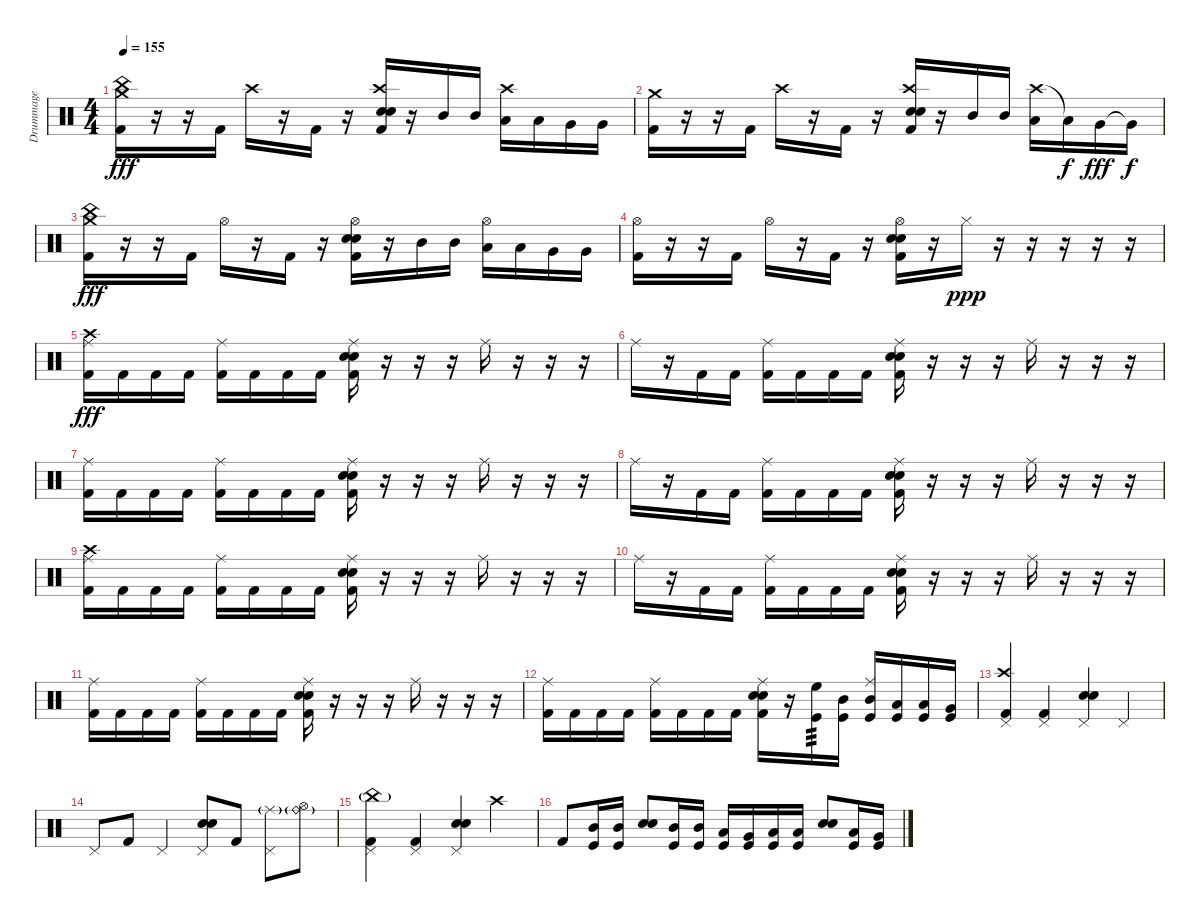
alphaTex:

\track ("Drummage" "Drummage") {instrument percussion}
\staff {score}
\articulation defaults
\ts (4 4)
\tempo 155
\clef neutral
\ks c
("China (hit)" "Crash medium (hit)" "Kick (hit) 2").16{dy fff} r.16 r.16 "Kick (hit) 2".16 "Crash high (hit)".16 r.16 "Kick (hit) 2".16 r.16 ("Crash high (hit)" "Snare (hit) 2" "Electric Snare (hit)" "Kick (hit) 2").16 r.16 "Mid Tom (hit)".16 "Mid Tom (hit)".16 ("Crash high (hit)" "Low Tom (hit)").16 "Low Tom (hit)".16 "Very Low Tom (hit)".16 "Very Low Tom (hit)".16 |
("Crash medium (hit)" "Kick (hit) 2").16 r.16 r.16 "Kick (hit) 2".16 "Crash high (hit)".16 r.16 "Kick (hit) 2".16 r.16 ("Crash high (hit)" "Snare (hit) 2" "Electric Snare (hit)" "Kick (hit) 2").16 r.16 "Mid Tom (hit)".16 "Mid Tom (hit)".16 ("Crash high (hit)" "Low Tom (hit)").16 "Low Tom (hit)"{t}.16{dy f} "Very Low Tom (hit)".16{dy fff} "Very Low Tom (hit)"{t}.16{dy f} |
("China (hit)" "Crash medium (hit)" "Kick (hit) 2").16{dy fff} r.16 r.16 "Kick (hit) 2".16 "Hi-Hat (open)".16 r.16 "Kick (hit) 2".16 r.16 ("Hi-Hat (open)" "Snare (hit) 2" "Electric Snare (hit)" "Kick (hit) 2").16 r.16 "Mid Tom (hit)".16 "Mid Tom (hit)".16 ("Hi-Hat (open)" "Low Tom (hit)").16 "Low Tom (hit)".16 "Very Low Tom (hit)".16 "Very Low Tom (hit)".16 |
("Hi-Hat (open)" "Kick (hit) 2").16 r.16 r.16 "Kick (hit) 2".16 "Hi-Hat (open)".16 r.16 "Kick (hit) 2".16 r.16 ("Hi-Hat (open)" "Snare (hit) 2" "Electric Snare (hit)" "Kick (hit) 2").16 r.16 "Hi-Hat (closed)".16{dy ppp} r.16 r.16 r.16 r.16 r.16 |
("Ride (middle)" "Crash high (hit)" "Kick (hit) 2").16{dy fff} "Kick (hit) 2".16 "Kick (hit) 2".16 "Kick (hit) 2".16 ("Ride (middle)" "Kick (hit) 2").16 "Kick (hit) 2".16 "Kick (hit) 2".16 "Kick (hit) 2".16 ("Ride (middle)" "Electric Snare (hit)" "Snare (hit) 2" "Kick (hit) 2").16 r.16 r.16 r.16 "Ride (middle)".16 r.16 r.16 r.16 |
"Ride (middle)".16 r.16 "Kick (hit) 2".16 "Kick (hit) 2".16 ("Ride (middle)" "Kick (hit) 2").16 "Kick (hit) 2".16 "Kick (hit) 2".16 "Kick (hit) 2".16 ("Ride (middle)" "Electric Snare (hit)" "Snare (hit) 2" "Kick (hit) 2").16 r.16 r.16 r.16 "Ride (middle)".16 r.16 r.16 r.16 |
("Ride (middle)" "Kick (hit) 2").16 "Kick (hit) 2".16 "Kick (hit) 2".16 "Kick (hit) 2".16 ("Ride (middle)" "Kick (hit) 2").16 "Kick (hit) 2".16 "Kick (hit) 2".16 "Kick (hit) 2".16 ("Ride (middle)" "Electric Snare (hit)" "Snare (hit) 2" "Kick (hit) 2").16 r.16 r.16 r.16 "Ride (middle)".16 r.16 r.16 r.16 |
"Ride (middle)".16 r.16 "Kick (hit) 2".16 "Kick (hit) 2".16 ("Ride (middle)" "Kick (hit) 2").16 "Kick (hit) 2".16 "Kick (hit) 2".16 "Kick (hit) 2".16 ("Ride (middle)" "Electric Snare (hit)" "Snare (hit) 2" "Kick (hit) 2").16 r.16 r.16 r.16 "Ride (middle)".16 r.16 r.16 r.16 |
("Ride (middle)" "Crash high (hit)" "Kick (hit) 2").16 "Kick (hit) 2".16 "Kick (hit) 2".16 "Kick (hit) 2".16 ("Ride (middle)" "Kick (hit) 2").16 "Kick (hit) 2".16 "Kick (hit) 2".16 "Kick (hit) 2".16 ("Ride (middle)" "Electric Snare (hit)" "Snare (hit) 2" "Kick (hit) 2").16 r.16 r.16 r.16 "Ride (middle)".16 r.16 r.16 r.16 |
"Ride (middle)".16 r.16 "Kick (hit) 2".16 "Kick (hit) 2".16 ("Ride (middle)" "Kick (hit) 2").16 "Kick (hit) 2".16 "Kick (hit) 2".16 "Kick (hit) 2".16 ("Ride (middle)" "Electric Snare (hit)" "Snare (hit) 2" "Kick (hit) 2").16 r.16 r.16 r.16 "Ride (middle)".16 r.16 r.16 r.16 |
("Ride (middle)" "Kick (hit) 2").16 "Kick (hit) 2".16 "Kick (hit) 2".16 "Kick (hit) 2".16 ("Ride (middle)" "Kick (hit) 2").16 "Kick (hit) 2".16 "Kick (hit) 2".16 "Kick (hit) 2".16 ("Ride (middle)" "Electric Snare (hit)" "Snare (hit) 2" "Kick (hit) 2").16 r.16 r.16 r.16 "Ride (middle)".16 r.16 r.16 r.16 |
("Ride (middle)" "Kick (hit) 2").16 "Kick (hit) 2".16 "Kick (hit) 2".16 "Kick (hit) 2".16 ("Ride (middle)" "Kick (hit) 2").16 "Kick (hit) 2".16 "Kick (hit) 2".16 "Kick (hit) 2".16 ("Ride (middle)" "Electric Snare (hit)" "Snare (hit) 2" "Kick (hit) 2").16 r.16 ("High Floor Tom (hit)" "Kick (hit)").16{tp 3} ("Mid Tom (hit)" "Kick (hit)").16 ("Ride (middle)" "Mid Tom (hit)" "Kick (hit)").16 ("Low Tom (hit)" "Kick (hit)").16 ("Low Tom (hit)" "Kick (hit)").16 ("Very Low Tom (hit)" "Kick (hit)").16 |
("Crash high (hit)" "Pedal Hi-Hat (hit)" "Kick (hit) 2").4 ("Pedal Hi-Hat (hit)" "Kick (hit) 2").4 ("Pedal Hi-Hat (hit)" "Snare (hit) 2" "Electric Snare (hit)").4 "Pedal Hi-Hat (hit)".4 |
"Pedal Hi-Hat (hit)".8 "Kick (hit) 2".8 "Pedal Hi-Hat (hit)".4 ("Pedal Hi-Hat (hit)" "Snare (hit) 2" "Electric Snare (hit)").8 "Kick (hit) 2".8 ("Ride (middle)"{g} "Pedal Hi-Hat (hit)").8 ("Ride (bell)"{g} "Hi-Hat (open)").8 |
("China (hit)"{g} "Pedal Hi-Hat (hit)" "Kick (hit) 2").4 ("Pedal Hi-Hat (hit)" "Kick (hit) 2").4 ("Pedal Hi-Hat (hit)" "Snare (hit) 2" "Electric Snare (hit)").4 "Crash high (hit)".4 |
"Kick (hit) 2".8 ("Kick (hit)" "Mid Tom (hit)").16 ("Kick (hit)" "Mid Tom (hit)").16 ("Electric Snare (hit)" "Snare (hit) 2").8 ("Kick (hit)" "Mid Tom (hit)").16 ("Kick (hit)" "Mid Tom (hit)").16 ("Kick (hit)" "Low Tom (hit)").16 ("Kick (hit)" "Very Low Tom (hit)").16 ("Kick (hit)" "Low Tom (hit)").16 ("Kick (hit)" "Low Floor Tom (hit)").16 ("Electric Snare (hit)" "Snare (hit) 2").8 ("Kick (hit)" "Low Tom (hit)").16 ("Kick (hit)" "Very Low Tom (hit)").16
